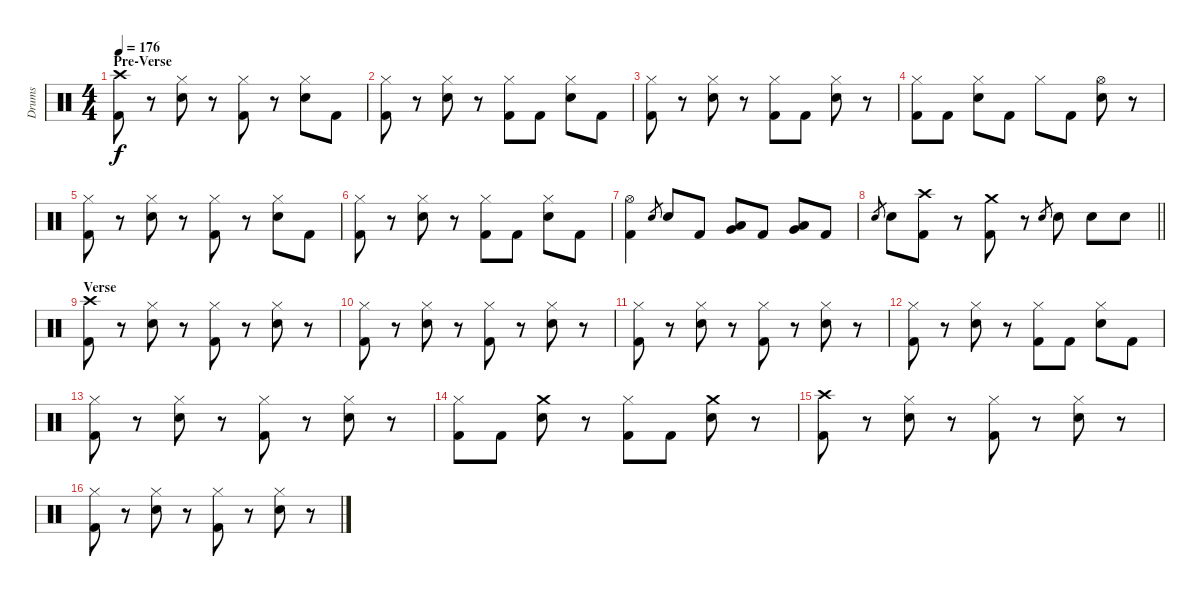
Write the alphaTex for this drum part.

\track ("Drums" "Drums") {instrument percussion}
\staff {score}
\articulation defaults
\ts (4 4)
\section ("" "Pre-Verse")
\tempo 176
\clef neutral
\ks c
("Crash high (hit)" "Kick (hit) 2").8{dy f} r.8 ("Hi-Hat (closed)" "Electric Snare (hit)").8 r.8 ("Hi-Hat (closed)" "Kick (hit) 2").8 r.8 ("Hi-Hat (closed)" "Electric Snare (hit)").8 "Kick (hit) 2".8 |
("Hi-Hat (closed)" "Kick (hit) 2").8 r.8 ("Hi-Hat (closed)" "Electric Snare (hit)").8 r.8 ("Hi-Hat (closed)" "Kick (hit) 2").8 "Kick (hit) 2".8 ("Hi-Hat (closed)" "Electric Snare (hit)").8 "Kick (hit) 2".8 |
("Hi-Hat (closed)" "Kick (hit) 2").8 r.8 ("Hi-Hat (closed)" "Electric Snare (hit)").8 r.8 ("Hi-Hat (closed)" "Kick (hit) 2").8 "Kick (hit) 2".8 ("Hi-Hat (closed)" "Electric Snare (hit)").8 r.8 |
("Hi-Hat (closed)" "Kick (hit) 2").8 "Kick (hit) 2".8 ("Hi-Hat (closed)" "Electric Snare (hit)").8 "Kick (hit) 2".8 "Hi-Hat (closed)".8 "Kick (hit) 2".8 ("Hi-Hat (open)" "Electric Snare (hit)").8 r.8 |
("Hi-Hat (closed)" "Kick (hit) 2").8 r.8 ("Hi-Hat (closed)" "Electric Snare (hit)").8 r.8 ("Hi-Hat (closed)" "Kick (hit) 2").8 r.8 ("Hi-Hat (closed)" "Electric Snare (hit)").8 "Kick (hit) 2".8 |
("Hi-Hat (closed)" "Kick (hit) 2").8 r.8 ("Hi-Hat (closed)" "Electric Snare (hit)").8 r.8 ("Hi-Hat (closed)" "Kick (hit) 2").8 "Kick (hit) 2".8 ("Hi-Hat (closed)" "Electric Snare (hit)").8 "Kick (hit) 2".8 |
("Hi-Hat (open)" "Kick (hit) 2").4 "Electric Snare (hit)".8{gr} "Electric Snare (hit)".8 "Kick (hit) 2".8 ("Very Low Tom (hit)" "Low Tom (hit)").8 "Kick (hit) 2".8 ("Low Floor Tom (hit)" "Very Low Tom (hit)").8 "Kick (hit) 2".8 |
\barLineRight lightlight "Electric Snare (hit)".8{gr} "Electric Snare (hit)".8
("Crash high (hit)" "Kick (hit) 2").8 r.8 ("Crash medium (hit)" "Kick (hit) 2").8 r.8 "Electric Snare (hit)".8{gr} "Electric Snare (hit)".8 "Electric Snare (hit)".8 "Electric Snare (hit)".8 |
\section ("" "Verse")
("Crash high (hit)" "Kick (hit) 2").8 r.8 ("Hi-Hat (closed)" "Electric Snare (hit)").8 r.8 ("Hi-Hat (closed)" "Kick (hit) 2").8 r.8 ("Hi-Hat (closed)" "Electric Snare (hit)").8 r.8 |
("Hi-Hat (closed)" "Kick (hit) 2").8 r.8 ("Hi-Hat (closed)" "Electric Snare (hit)").8 r.8 ("Hi-Hat (closed)" "Kick (hit) 2").8 r.8 ("Hi-Hat (closed)" "Electric Snare (hit)").8 r.8 |
("Hi-Hat (closed)" "Kick (hit) 2").8 r.8 ("Hi-Hat (closed)" "Electric Snare (hit)").8 r.8 ("Hi-Hat (closed)" "Kick (hit) 2").8 r.8 ("Hi-Hat (closed)" "Electric Snare (hit)").8 r.8 |
("Hi-Hat (closed)" "Kick (hit) 2").8 r.8 ("Hi-Hat (closed)" "Electric Snare (hit)").8 r.8 ("Hi-Hat (closed)" "Kick (hit) 2").8 "Kick (hit) 2".8 ("Hi-Hat (closed)" "Electric Snare (hit)").8 "Kick (hit) 2".8 |
("Hi-Hat (closed)" "Kick (hit) 2").8 r.8 ("Hi-Hat (closed)" "Electric Snare (hit)").8 r.8 ("Hi-Hat (closed)" "Kick (hit) 2").8 r.8 ("Hi-Hat (closed)" "Electric Snare (hit)").8 r.8 |
("Hi-Hat (closed)" "Kick (hit) 2").8 "Kick (hit) 2".8 ("Crash medium (hit)" "Electric Snare (hit)").8 r.8 ("Hi-Hat (closed)" "Kick (hit) 2").8 "Kick (hit) 2".8 ("Crash medium (hit)" "Electric Snare (hit)").8 r.8 |
("Crash high (hit)" "Kick (hit) 2").8 r.8 ("Hi-Hat (closed)" "Electric Snare (hit)").8 r.8 ("Hi-Hat (closed)" "Kick (hit) 2").8 r.8 ("Hi-Hat (closed)" "Electric Snare (hit)").8 r.8 |
("Hi-Hat (closed)" "Kick (hit) 2").8 r.8 ("Hi-Hat (closed)" "Electric Snare (hit)").8 r.8 ("Hi-Hat (closed)" "Kick (hit) 2").8 r.8 ("Hi-Hat (closed)" "Electric Snare (hit)").8 r.8
